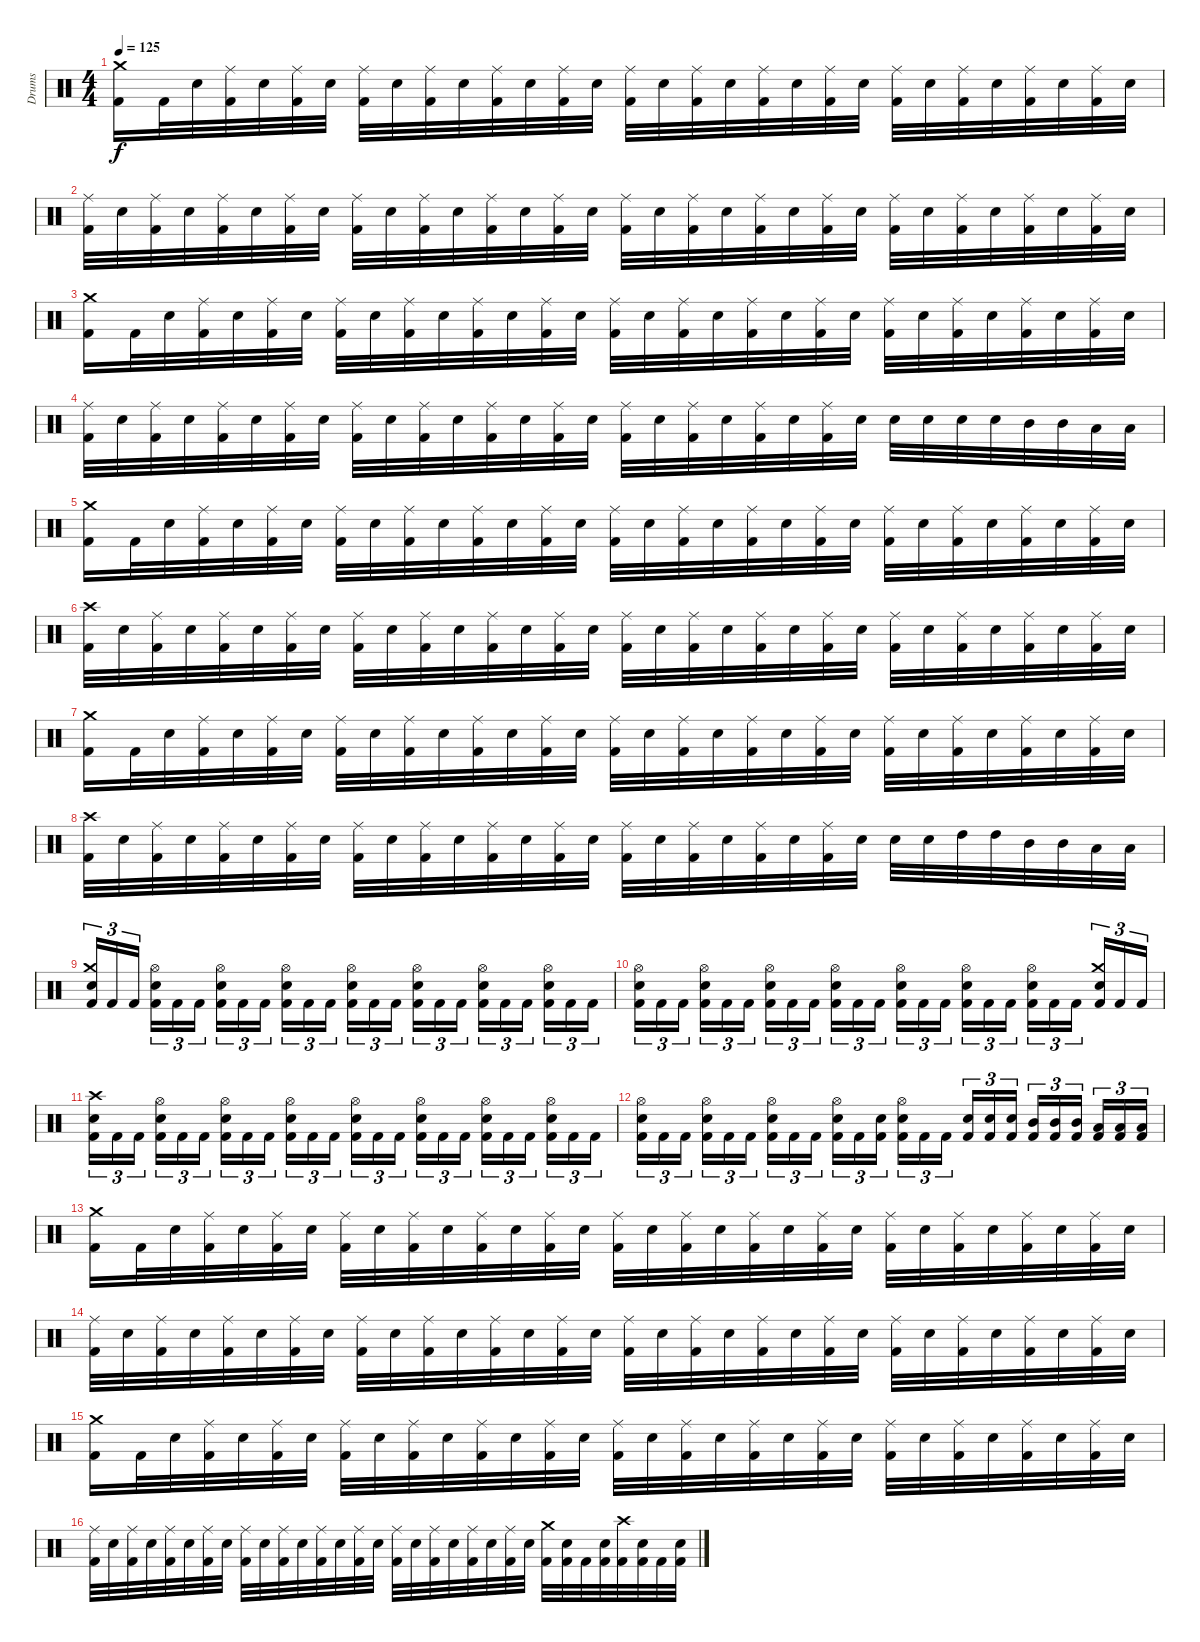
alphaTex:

\track ("Drums" "Drums") {instrument percussion}
\staff {score}
\articulation defaults
\ts (4 4)
\tempo 125
\clef neutral
\ks c
("Kick (hit) 2" "Crash medium (hit)").16{dy f} "Kick (hit) 2".32 "Electric Snare (hit)".32 ("Kick (hit) 2" "Ride (middle)").32 "Electric Snare (hit)".32 ("Kick (hit) 2" "Ride (middle)").32 "Electric Snare (hit)".32 ("Kick (hit) 2" "Ride (middle)").32 "Electric Snare (hit)".32 ("Kick (hit) 2" "Ride (middle)").32 "Electric Snare (hit)".32 ("Kick (hit) 2" "Ride (middle)").32 "Electric Snare (hit)".32 ("Kick (hit) 2" "Ride (middle)").32 "Electric Snare (hit)".32 ("Kick (hit) 2" "Ride (middle)").32 "Electric Snare (hit)".32 ("Kick (hit) 2" "Ride (middle)").32 "Electric Snare (hit)".32 ("Kick (hit) 2" "Ride (middle)").32 "Electric Snare (hit)".32 ("Kick (hit) 2" "Ride (middle)").32 "Electric Snare (hit)".32 ("Kick (hit) 2" "Ride (middle)").32 "Electric Snare (hit)".32 ("Kick (hit) 2" "Ride (middle)").32 "Electric Snare (hit)".32 ("Kick (hit) 2" "Ride (middle)").32 "Electric Snare (hit)".32 ("Kick (hit) 2" "Ride (middle)").32 "Electric Snare (hit)".32 |
("Kick (hit) 2" "Ride (middle)").32 "Electric Snare (hit)".32 ("Kick (hit) 2" "Ride (middle)").32 "Electric Snare (hit)".32 ("Kick (hit) 2" "Ride (middle)").32 "Electric Snare (hit)".32 ("Kick (hit) 2" "Ride (middle)").32 "Electric Snare (hit)".32 ("Kick (hit) 2" "Ride (middle)").32 "Electric Snare (hit)".32 ("Kick (hit) 2" "Ride (middle)").32 "Electric Snare (hit)".32 ("Kick (hit) 2" "Ride (middle)").32 "Electric Snare (hit)".32 ("Kick (hit) 2" "Ride (middle)").32 "Electric Snare (hit)".32 ("Kick (hit) 2" "Ride (middle)").32 "Electric Snare (hit)".32 ("Kick (hit) 2" "Ride (middle)").32 "Electric Snare (hit)".32 ("Kick (hit) 2" "Ride (middle)").32 "Electric Snare (hit)".32 ("Kick (hit) 2" "Ride (middle)").32 "Electric Snare (hit)".32 ("Kick (hit) 2" "Ride (middle)").32 "Electric Snare (hit)".32 ("Kick (hit) 2" "Ride (middle)").32 "Electric Snare (hit)".32 ("Kick (hit) 2" "Ride (middle)").32 "Electric Snare (hit)".32 ("Kick (hit) 2" "Ride (middle)").32 "Electric Snare (hit)".32 |
("Kick (hit) 2" "Crash medium (hit)").16 "Kick (hit) 2".32 "Electric Snare (hit)".32 ("Kick (hit) 2" "Ride (middle)").32 "Electric Snare (hit)".32 ("Kick (hit) 2" "Ride (middle)").32 "Electric Snare (hit)".32 ("Kick (hit) 2" "Ride (middle)").32 "Electric Snare (hit)".32 ("Kick (hit) 2" "Ride (middle)").32 "Electric Snare (hit)".32 ("Kick (hit) 2" "Ride (middle)").32 "Electric Snare (hit)".32 ("Kick (hit) 2" "Ride (middle)").32 "Electric Snare (hit)".32 ("Kick (hit) 2" "Ride (middle)").32 "Electric Snare (hit)".32 ("Kick (hit) 2" "Ride (middle)").32 "Electric Snare (hit)".32 ("Kick (hit) 2" "Ride (middle)").32 "Electric Snare (hit)".32 ("Kick (hit) 2" "Ride (middle)").32 "Electric Snare (hit)".32 ("Kick (hit) 2" "Ride (middle)").32 "Electric Snare (hit)".32 ("Kick (hit) 2" "Ride (middle)").32 "Electric Snare (hit)".32 ("Kick (hit) 2" "Ride (middle)").32 "Electric Snare (hit)".32 ("Kick (hit) 2" "Ride (middle)").32 "Electric Snare (hit)".32 |
("Kick (hit) 2" "Ride (middle)").32 "Electric Snare (hit)".32 ("Kick (hit) 2" "Ride (middle)").32 "Electric Snare (hit)".32 ("Kick (hit) 2" "Ride (middle)").32 "Electric Snare (hit)".32 ("Kick (hit) 2" "Ride (middle)").32 "Electric Snare (hit)".32 ("Kick (hit) 2" "Ride (middle)").32 "Electric Snare (hit)".32 ("Kick (hit) 2" "Ride (middle)").32 "Electric Snare (hit)".32 ("Kick (hit) 2" "Ride (middle)").32 "Electric Snare (hit)".32 ("Kick (hit) 2" "Ride (middle)").32 "Electric Snare (hit)".32 ("Kick (hit) 2" "Ride (middle)").32 "Electric Snare (hit)".32 ("Kick (hit) 2" "Ride (middle)").32 "Electric Snare (hit)".32 ("Kick (hit) 2" "Ride (middle)").32 "Electric Snare (hit)".32 ("Kick (hit) 2" "Ride (middle)").32 "Electric Snare (hit)".32 "Electric Snare (hit)".32 "Electric Snare (hit)".32 "Electric Snare (hit)".32 "Electric Snare (hit)".32 "Mid Tom (hit)".32 "Mid Tom (hit)".32 "Low Tom (hit)".32 "Low Tom (hit)".32 |
("Kick (hit) 2" "Crash medium (hit)").16 "Kick (hit) 2".32 "Electric Snare (hit)".32 ("Kick (hit) 2" "Ride (middle)").32 "Electric Snare (hit)".32 ("Kick (hit) 2" "Ride (middle)").32 "Electric Snare (hit)".32 ("Kick (hit) 2" "Ride (middle)").32 "Electric Snare (hit)".32 ("Kick (hit) 2" "Ride (middle)").32 "Electric Snare (hit)".32 ("Kick (hit) 2" "Ride (middle)").32 "Electric Snare (hit)".32 ("Kick (hit) 2" "Ride (middle)").32 "Electric Snare (hit)".32 ("Kick (hit) 2" "Ride (middle)").32 "Electric Snare (hit)".32 ("Kick (hit) 2" "Ride (middle)").32 "Electric Snare (hit)".32 ("Kick (hit) 2" "Ride (middle)").32 "Electric Snare (hit)".32 ("Kick (hit) 2" "Ride (middle)").32 "Electric Snare (hit)".32 ("Kick (hit) 2" "Ride (middle)").32 "Electric Snare (hit)".32 ("Kick (hit) 2" "Ride (middle)").32 "Electric Snare (hit)".32 ("Kick (hit) 2" "Ride (middle)").32 "Electric Snare (hit)".32 ("Kick (hit) 2" "Ride (middle)").32 "Electric Snare (hit)".32 |
("Kick (hit) 2" "Crash high (hit)").32 "Electric Snare (hit)".32 ("Kick (hit) 2" "Ride (middle)").32 "Electric Snare (hit)".32 ("Kick (hit) 2" "Ride (middle)").32 "Electric Snare (hit)".32 ("Kick (hit) 2" "Ride (middle)").32 "Electric Snare (hit)".32 ("Kick (hit) 2" "Ride (middle)").32 "Electric Snare (hit)".32 ("Kick (hit) 2" "Ride (middle)").32 "Electric Snare (hit)".32 ("Kick (hit) 2" "Ride (middle)").32 "Electric Snare (hit)".32 ("Kick (hit) 2" "Ride (middle)").32 "Electric Snare (hit)".32 ("Kick (hit) 2" "Ride (middle)").32 "Electric Snare (hit)".32 ("Kick (hit) 2" "Ride (middle)").32 "Electric Snare (hit)".32 ("Kick (hit) 2" "Ride (middle)").32 "Electric Snare (hit)".32 ("Kick (hit) 2" "Ride (middle)").32 "Electric Snare (hit)".32 ("Kick (hit) 2" "Ride (middle)").32 "Electric Snare (hit)".32 ("Kick (hit) 2" "Ride (middle)").32 "Electric Snare (hit)".32 ("Kick (hit) 2" "Ride (middle)").32 "Electric Snare (hit)".32 ("Kick (hit) 2" "Ride (middle)").32 "Electric Snare (hit)".32 |
("Kick (hit) 2" "Crash medium (hit)").16 "Kick (hit) 2".32 "Electric Snare (hit)".32 ("Kick (hit) 2" "Ride (middle)").32 "Electric Snare (hit)".32 ("Kick (hit) 2" "Ride (middle)").32 "Electric Snare (hit)".32 ("Kick (hit) 2" "Ride (middle)").32 "Electric Snare (hit)".32 ("Kick (hit) 2" "Ride (middle)").32 "Electric Snare (hit)".32 ("Kick (hit) 2" "Ride (middle)").32 "Electric Snare (hit)".32 ("Kick (hit) 2" "Ride (middle)").32 "Electric Snare (hit)".32 ("Kick (hit) 2" "Ride (middle)").32 "Electric Snare (hit)".32 ("Kick (hit) 2" "Ride (middle)").32 "Electric Snare (hit)".32 ("Kick (hit) 2" "Ride (middle)").32 "Electric Snare (hit)".32 ("Kick (hit) 2" "Ride (middle)").32 "Electric Snare (hit)".32 ("Kick (hit) 2" "Ride (middle)").32 "Electric Snare (hit)".32 ("Kick (hit) 2" "Ride (middle)").32 "Electric Snare (hit)".32 ("Kick (hit) 2" "Ride (middle)").32 "Electric Snare (hit)".32 ("Kick (hit) 2" "Ride (middle)").32 "Electric Snare (hit)".32 |
("Kick (hit) 2" "Crash high (hit)").32 "Electric Snare (hit)".32 ("Kick (hit) 2" "Ride (middle)").32 "Electric Snare (hit)".32 ("Kick (hit) 2" "Ride (middle)").32 "Electric Snare (hit)".32 ("Kick (hit) 2" "Ride (middle)").32 "Electric Snare (hit)".32 ("Kick (hit) 2" "Ride (middle)").32 "Electric Snare (hit)".32 ("Kick (hit) 2" "Ride (middle)").32 "Electric Snare (hit)".32 ("Kick (hit) 2" "Ride (middle)").32 "Electric Snare (hit)".32 ("Kick (hit) 2" "Ride (middle)").32 "Electric Snare (hit)".32 ("Kick (hit) 2" "Ride (middle)").32 "Electric Snare (hit)".32 ("Kick (hit) 2" "Ride (middle)").32 "Electric Snare (hit)".32 ("Kick (hit) 2" "Ride (middle)").32 "Electric Snare (hit)".32 ("Kick (hit) 2" "Ride (middle)").32 "Electric Snare (hit)".32 "Electric Snare (hit)".32 "Electric Snare (hit)".32 "High Tom (hit)".32 "High Tom (hit)".32 "Mid Tom (hit)".32 "Mid Tom (hit)".32 "Low Tom (hit)".32 "Low Tom (hit)".32 |
("Kick (hit) 2" "Electric Snare (hit)" "Crash medium (hit)").16{tu (3 2)} "Kick (hit) 2".16{tu (3 2)} "Kick (hit) 2".16{tu (3 2)} ("Kick (hit) 2" "Electric Snare (hit)" "Hi-Hat (open)").16{tu (3 2)} "Kick (hit) 2".16{tu (3 2)} "Kick (hit) 2".16{tu (3 2)} ("Kick (hit) 2" "Electric Snare (hit)" "Hi-Hat (open)").16{tu (3 2)} "Kick (hit) 2".16{tu (3 2)} "Kick (hit) 2".16{tu (3 2)} ("Kick (hit) 2" "Electric Snare (hit)" "Hi-Hat (open)").16{tu (3 2)} "Kick (hit) 2".16{tu (3 2)} "Kick (hit) 2".16{tu (3 2)} ("Kick (hit) 2" "Electric Snare (hit)" "Hi-Hat (open)").16{tu (3 2)} "Kick (hit) 2".16{tu (3 2)} "Kick (hit) 2".16{tu (3 2)} ("Kick (hit) 2" "Electric Snare (hit)" "Hi-Hat (open)").16{tu (3 2)} "Kick (hit) 2".16{tu (3 2)} "Kick (hit) 2".16{tu (3 2)} ("Kick (hit) 2" "Electric Snare (hit)" "Hi-Hat (open)").16{tu (3 2)} "Kick (hit) 2".16{tu (3 2)} "Kick (hit) 2".16{tu (3 2)} ("Kick (hit) 2" "Electric Snare (hit)" "Hi-Hat (open)").16{tu (3 2)} "Kick (hit) 2".16{tu (3 2)} "Kick (hit) 2".16{tu (3 2)} |
("Kick (hit) 2" "Electric Snare (hit)" "Hi-Hat (open)").16{tu (3 2)} "Kick (hit) 2".16{tu (3 2)} "Kick (hit) 2".16{tu (3 2)} ("Kick (hit) 2" "Electric Snare (hit)" "Hi-Hat (open)").16{tu (3 2)} "Kick (hit) 2".16{tu (3 2)} "Kick (hit) 2".16{tu (3 2)} ("Kick (hit) 2" "Electric Snare (hit)" "Hi-Hat (open)").16{tu (3 2)} "Kick (hit) 2".16{tu (3 2)} "Kick (hit) 2".16{tu (3 2)} ("Kick (hit) 2" "Electric Snare (hit)" "Hi-Hat (open)").16{tu (3 2)} "Kick (hit) 2".16{tu (3 2)} "Kick (hit) 2".16{tu (3 2)} ("Kick (hit) 2" "Electric Snare (hit)" "Hi-Hat (open)").16{tu (3 2)} "Kick (hit) 2".16{tu (3 2)} "Kick (hit) 2".16{tu (3 2)} ("Kick (hit) 2" "Electric Snare (hit)" "Hi-Hat (open)").16{tu (3 2)} "Kick (hit) 2".16{tu (3 2)} "Kick (hit) 2".16{tu (3 2)} ("Kick (hit) 2" "Electric Snare (hit)" "Hi-Hat (open)").16{tu (3 2)} "Kick (hit) 2".16{tu (3 2)} "Kick (hit) 2".16{tu (3 2)} ("Kick (hit) 2" "Electric Snare (hit)" "Crash medium (hit)").16{tu (3 2)} "Kick (hit) 2".16{tu (3 2)} "Kick (hit) 2".16{tu (3 2)} |
("Kick (hit) 2" "Electric Snare (hit)" "Crash high (hit)").16{tu (3 2)} "Kick (hit) 2".16{tu (3 2)} "Kick (hit) 2".16{tu (3 2)} ("Kick (hit) 2" "Electric Snare (hit)" "Hi-Hat (open)").16{tu (3 2)} "Kick (hit) 2".16{tu (3 2)} "Kick (hit) 2".16{tu (3 2)} ("Kick (hit) 2" "Electric Snare (hit)" "Hi-Hat (open)").16{tu (3 2)} "Kick (hit) 2".16{tu (3 2)} "Kick (hit) 2".16{tu (3 2)} ("Kick (hit) 2" "Electric Snare (hit)" "Hi-Hat (open)").16{tu (3 2)} "Kick (hit) 2".16{tu (3 2)} "Kick (hit) 2".16{tu (3 2)} ("Kick (hit) 2" "Electric Snare (hit)" "Hi-Hat (open)").16{tu (3 2)} "Kick (hit) 2".16{tu (3 2)} "Kick (hit) 2".16{tu (3 2)} ("Kick (hit) 2" "Electric Snare (hit)" "Hi-Hat (open)").16{tu (3 2)} "Kick (hit) 2".16{tu (3 2)} "Kick (hit) 2".16{tu (3 2)} ("Kick (hit) 2" "Electric Snare (hit)" "Hi-Hat (open)").16{tu (3 2)} "Kick (hit) 2".16{tu (3 2)} "Kick (hit) 2".16{tu (3 2)} ("Kick (hit) 2" "Electric Snare (hit)" "Hi-Hat (open)").16{tu (3 2)} "Kick (hit) 2".16{tu (3 2)} "Kick (hit) 2".16{tu (3 2)} |
("Kick (hit) 2" "Electric Snare (hit)" "Hi-Hat (open)").16{tu (3 2)} "Kick (hit) 2".16{tu (3 2)} "Kick (hit) 2".16{tu (3 2)} ("Kick (hit) 2" "Electric Snare (hit)" "Hi-Hat (open)").16{tu (3 2)} "Kick (hit) 2".16{tu (3 2)} "Kick (hit) 2".16{tu (3 2)} ("Kick (hit) 2" "Electric Snare (hit)" "Hi-Hat (open)").16{tu (3 2)} "Kick (hit) 2".16{tu (3 2)} "Kick (hit) 2".16{tu (3 2)} ("Kick (hit) 2" "Electric Snare (hit)" "Hi-Hat (open)").16{tu (3 2)} "Kick (hit) 2".16{tu (3 2)} ("Kick (hit) 2" "Electric Snare (hit)").16{tu (3 2)} ("Kick (hit) 2" "Electric Snare (hit)" "Hi-Hat (open)").16{tu (3 2)} "Kick (hit) 2".16{tu (3 2)} "Kick (hit) 2".16{tu (3 2)} ("Kick (hit) 2" "Electric Snare (hit)").16{tu (3 2)} ("Kick (hit) 2" "Electric Snare (hit)").16{tu (3 2)} ("Kick (hit) 2" "Electric Snare (hit)").16{tu (3 2)} ("Kick (hit) 2" "Mid Tom (hit)").16{tu (3 2)} ("Kick (hit) 2" "Mid Tom (hit)").16{tu (3 2)} ("Kick (hit) 2" "Mid Tom (hit)").16{tu (3 2)} ("Kick (hit) 2" "Low Tom (hit)").16{tu (3 2)} ("Kick (hit) 2" "Low Tom (hit)").16{tu (3 2)} ("Kick (hit) 2" "Low Tom (hit)").16{tu (3 2)} |
("Kick (hit) 2" "Crash medium (hit)").16 "Kick (hit) 2".32 "Electric Snare (hit)".32 ("Kick (hit) 2" "Ride (middle)").32 "Electric Snare (hit)".32 ("Kick (hit) 2" "Ride (middle)").32 "Electric Snare (hit)".32 ("Kick (hit) 2" "Ride (middle)").32 "Electric Snare (hit)".32 ("Kick (hit) 2" "Ride (middle)").32 "Electric Snare (hit)".32 ("Kick (hit) 2" "Ride (middle)").32 "Electric Snare (hit)".32 ("Kick (hit) 2" "Ride (middle)").32 "Electric Snare (hit)".32 ("Kick (hit) 2" "Ride (middle)").32 "Electric Snare (hit)".32 ("Kick (hit) 2" "Ride (middle)").32 "Electric Snare (hit)".32 ("Kick (hit) 2" "Ride (middle)").32 "Electric Snare (hit)".32 ("Kick (hit) 2" "Ride (middle)").32 "Electric Snare (hit)".32 ("Kick (hit) 2" "Ride (middle)").32 "Electric Snare (hit)".32 ("Kick (hit) 2" "Ride (middle)").32 "Electric Snare (hit)".32 ("Kick (hit) 2" "Ride (middle)").32 "Electric Snare (hit)".32 ("Kick (hit) 2" "Ride (middle)").32 "Electric Snare (hit)".32 |
("Kick (hit) 2" "Ride (middle)").32 "Electric Snare (hit)".32 ("Kick (hit) 2" "Ride (middle)").32 "Electric Snare (hit)".32 ("Kick (hit) 2" "Ride (middle)").32 "Electric Snare (hit)".32 ("Kick (hit) 2" "Ride (middle)").32 "Electric Snare (hit)".32 ("Kick (hit) 2" "Ride (middle)").32 "Electric Snare (hit)".32 ("Kick (hit) 2" "Ride (middle)").32 "Electric Snare (hit)".32 ("Kick (hit) 2" "Ride (middle)").32 "Electric Snare (hit)".32 ("Kick (hit) 2" "Ride (middle)").32 "Electric Snare (hit)".32 ("Kick (hit) 2" "Ride (middle)").32 "Electric Snare (hit)".32 ("Kick (hit) 2" "Ride (middle)").32 "Electric Snare (hit)".32 ("Kick (hit) 2" "Ride (middle)").32 "Electric Snare (hit)".32 ("Kick (hit) 2" "Ride (middle)").32 "Electric Snare (hit)".32 ("Kick (hit) 2" "Ride (middle)").32 "Electric Snare (hit)".32 ("Kick (hit) 2" "Ride (middle)").32 "Electric Snare (hit)".32 ("Kick (hit) 2" "Ride (middle)").32 "Electric Snare (hit)".32 ("Kick (hit) 2" "Ride (middle)").32 "Electric Snare (hit)".32 |
("Kick (hit) 2" "Crash medium (hit)").16 "Kick (hit) 2".32 "Electric Snare (hit)".32 ("Kick (hit) 2" "Ride (middle)").32 "Electric Snare (hit)".32 ("Kick (hit) 2" "Ride (middle)").32 "Electric Snare (hit)".32 ("Kick (hit) 2" "Ride (middle)").32 "Electric Snare (hit)".32 ("Kick (hit) 2" "Ride (middle)").32 "Electric Snare (hit)".32 ("Kick (hit) 2" "Ride (middle)").32 "Electric Snare (hit)".32 ("Kick (hit) 2" "Ride (middle)").32 "Electric Snare (hit)".32 ("Kick (hit) 2" "Ride (middle)").32 "Electric Snare (hit)".32 ("Kick (hit) 2" "Ride (middle)").32 "Electric Snare (hit)".32 ("Kick (hit) 2" "Ride (middle)").32 "Electric Snare (hit)".32 ("Kick (hit) 2" "Ride (middle)").32 "Electric Snare (hit)".32 ("Kick (hit) 2" "Ride (middle)").32 "Electric Snare (hit)".32 ("Kick (hit) 2" "Ride (middle)").32 "Electric Snare (hit)".32 ("Kick (hit) 2" "Ride (middle)").32 "Electric Snare (hit)".32 ("Kick (hit) 2" "Ride (middle)").32 "Electric Snare (hit)".32 |
("Kick (hit) 2" "Ride (middle)").32 "Electric Snare (hit)".32 ("Kick (hit) 2" "Ride (middle)").32 "Electric Snare (hit)".32 ("Kick (hit) 2" "Ride (middle)").32 "Electric Snare (hit)".32 ("Kick (hit) 2" "Ride (middle)").32 "Electric Snare (hit)".32 ("Kick (hit) 2" "Ride (middle)").32 "Electric Snare (hit)".32 ("Kick (hit) 2" "Ride (middle)").32 "Electric Snare (hit)".32 ("Kick (hit) 2" "Ride (middle)").32 "Electric Snare (hit)".32 ("Kick (hit) 2" "Ride (middle)").32 "Electric Snare (hit)".32 ("Kick (hit) 2" "Ride (middle)").32 "Electric Snare (hit)".32 ("Kick (hit) 2" "Ride (middle)").32 "Electric Snare (hit)".32 ("Kick (hit) 2" "Ride (middle)").32 "Electric Snare (hit)".32 ("Kick (hit) 2" "Ride (middle)").32 "Electric Snare (hit)".32 ("Kick (hit) 2" "Crash medium (hit)").32 ("Kick (hit) 2" "Electric Snare (hit)").32 "Kick (hit) 2".32 ("Kick (hit) 2" "Electric Snare (hit)").32 ("Kick (hit) 2" "Crash high (hit)").32 ("Kick (hit) 2" "Electric Snare (hit)").32 "Kick (hit) 2".32 ("Kick (hit) 2" "Electric Snare (hit)").32
